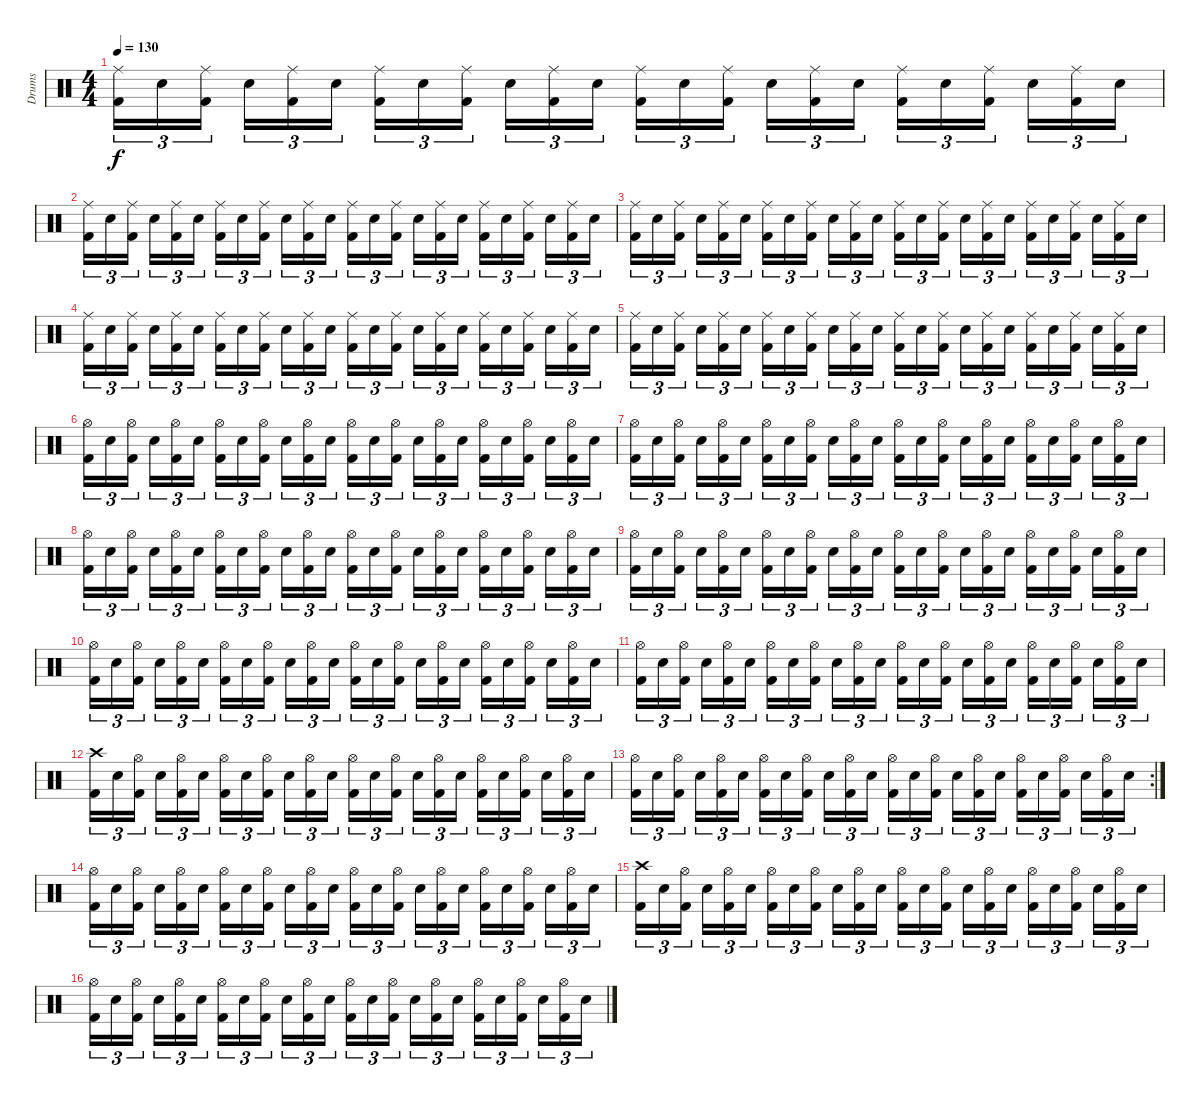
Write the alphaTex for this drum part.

\track ("Drums" "Drums") {instrument percussion}
\staff {score}
\articulation defaults
\ts (4 4)
\tempo 130
\clef neutral
\ks c
("Ride (middle)" "Kick (hit) 2").16{tu (3 2) dy f} "Electric Snare (hit)".16{tu (3 2)} ("Ride (middle)" "Kick (hit) 2").16{tu (3 2)} "Electric Snare (hit)".16{tu (3 2)} ("Ride (middle)" "Kick (hit) 2").16{tu (3 2)} "Electric Snare (hit)".16{tu (3 2)} ("Ride (middle)" "Kick (hit) 2").16{tu (3 2)} "Electric Snare (hit)".16{tu (3 2)} ("Ride (middle)" "Kick (hit) 2").16{tu (3 2)} "Electric Snare (hit)".16{tu (3 2)} ("Ride (middle)" "Kick (hit) 2").16{tu (3 2)} "Electric Snare (hit)".16{tu (3 2)} ("Ride (middle)" "Kick (hit) 2").16{tu (3 2)} "Electric Snare (hit)".16{tu (3 2)} ("Ride (middle)" "Kick (hit) 2").16{tu (3 2)} "Electric Snare (hit)".16{tu (3 2)} ("Ride (middle)" "Kick (hit) 2").16{tu (3 2)} "Electric Snare (hit)".16{tu (3 2)} ("Ride (middle)" "Kick (hit) 2").16{tu (3 2)} "Electric Snare (hit)".16{tu (3 2)} ("Ride (middle)" "Kick (hit) 2").16{tu (3 2)} "Electric Snare (hit)".16{tu (3 2)} ("Ride (middle)" "Kick (hit) 2").16{tu (3 2)} "Electric Snare (hit)".16{tu (3 2)} |
("Ride (middle)" "Kick (hit) 2").16{tu (3 2)} "Electric Snare (hit)".16{tu (3 2)} ("Ride (middle)" "Kick (hit) 2").16{tu (3 2)} "Electric Snare (hit)".16{tu (3 2)} ("Ride (middle)" "Kick (hit) 2").16{tu (3 2)} "Electric Snare (hit)".16{tu (3 2)} ("Ride (middle)" "Kick (hit) 2").16{tu (3 2)} "Electric Snare (hit)".16{tu (3 2)} ("Ride (middle)" "Kick (hit) 2").16{tu (3 2)} "Electric Snare (hit)".16{tu (3 2)} ("Ride (middle)" "Kick (hit) 2").16{tu (3 2)} "Electric Snare (hit)".16{tu (3 2)} ("Ride (middle)" "Kick (hit) 2").16{tu (3 2)} "Electric Snare (hit)".16{tu (3 2)} ("Ride (middle)" "Kick (hit) 2").16{tu (3 2)} "Electric Snare (hit)".16{tu (3 2)} ("Ride (middle)" "Kick (hit) 2").16{tu (3 2)} "Electric Snare (hit)".16{tu (3 2)} ("Ride (middle)" "Kick (hit) 2").16{tu (3 2)} "Electric Snare (hit)".16{tu (3 2)} ("Ride (middle)" "Kick (hit) 2").16{tu (3 2)} "Electric Snare (hit)".16{tu (3 2)} ("Ride (middle)" "Kick (hit) 2").16{tu (3 2)} "Electric Snare (hit)".16{tu (3 2)} |
("Ride (middle)" "Kick (hit) 2").16{tu (3 2)} "Electric Snare (hit)".16{tu (3 2)} ("Ride (middle)" "Kick (hit) 2").16{tu (3 2)} "Electric Snare (hit)".16{tu (3 2)} ("Ride (middle)" "Kick (hit) 2").16{tu (3 2)} "Electric Snare (hit)".16{tu (3 2)} ("Ride (middle)" "Kick (hit) 2").16{tu (3 2)} "Electric Snare (hit)".16{tu (3 2)} ("Ride (middle)" "Kick (hit) 2").16{tu (3 2)} "Electric Snare (hit)".16{tu (3 2)} ("Ride (middle)" "Kick (hit) 2").16{tu (3 2)} "Electric Snare (hit)".16{tu (3 2)} ("Ride (middle)" "Kick (hit) 2").16{tu (3 2)} "Electric Snare (hit)".16{tu (3 2)} ("Ride (middle)" "Kick (hit) 2").16{tu (3 2)} "Electric Snare (hit)".16{tu (3 2)} ("Ride (middle)" "Kick (hit) 2").16{tu (3 2)} "Electric Snare (hit)".16{tu (3 2)} ("Ride (middle)" "Kick (hit) 2").16{tu (3 2)} "Electric Snare (hit)".16{tu (3 2)} ("Ride (middle)" "Kick (hit) 2").16{tu (3 2)} "Electric Snare (hit)".16{tu (3 2)} ("Ride (middle)" "Kick (hit) 2").16{tu (3 2)} "Electric Snare (hit)".16{tu (3 2)} |
("Ride (middle)" "Kick (hit) 2").16{tu (3 2)} "Electric Snare (hit)".16{tu (3 2)} ("Ride (middle)" "Kick (hit) 2").16{tu (3 2)} "Electric Snare (hit)".16{tu (3 2)} ("Ride (middle)" "Kick (hit) 2").16{tu (3 2)} "Electric Snare (hit)".16{tu (3 2)} ("Ride (middle)" "Kick (hit) 2").16{tu (3 2)} "Electric Snare (hit)".16{tu (3 2)} ("Ride (middle)" "Kick (hit) 2").16{tu (3 2)} "Electric Snare (hit)".16{tu (3 2)} ("Ride (middle)" "Kick (hit) 2").16{tu (3 2)} "Electric Snare (hit)".16{tu (3 2)} ("Ride (middle)" "Kick (hit) 2").16{tu (3 2)} "Electric Snare (hit)".16{tu (3 2)} ("Ride (middle)" "Kick (hit) 2").16{tu (3 2)} "Electric Snare (hit)".16{tu (3 2)} ("Ride (middle)" "Kick (hit) 2").16{tu (3 2)} "Electric Snare (hit)".16{tu (3 2)} ("Ride (middle)" "Kick (hit) 2").16{tu (3 2)} "Electric Snare (hit)".16{tu (3 2)} ("Ride (middle)" "Kick (hit) 2").16{tu (3 2)} "Electric Snare (hit)".16{tu (3 2)} ("Ride (middle)" "Kick (hit) 2").16{tu (3 2)} "Electric Snare (hit)".16{tu (3 2)} |
("Ride (middle)" "Kick (hit) 2").16{tu (3 2)} "Electric Snare (hit)".16{tu (3 2)} ("Ride (middle)" "Kick (hit) 2").16{tu (3 2)} "Electric Snare (hit)".16{tu (3 2)} ("Ride (middle)" "Kick (hit) 2").16{tu (3 2)} "Electric Snare (hit)".16{tu (3 2)} ("Ride (middle)" "Kick (hit) 2").16{tu (3 2)} "Electric Snare (hit)".16{tu (3 2)} ("Ride (middle)" "Kick (hit) 2").16{tu (3 2)} "Electric Snare (hit)".16{tu (3 2)} ("Ride (middle)" "Kick (hit) 2").16{tu (3 2)} "Electric Snare (hit)".16{tu (3 2)} ("Ride (middle)" "Kick (hit) 2").16{tu (3 2)} "Electric Snare (hit)".16{tu (3 2)} ("Ride (middle)" "Kick (hit) 2").16{tu (3 2)} "Electric Snare (hit)".16{tu (3 2)} ("Ride (middle)" "Kick (hit) 2").16{tu (3 2)} "Electric Snare (hit)".16{tu (3 2)} ("Ride (middle)" "Kick (hit) 2").16{tu (3 2)} "Electric Snare (hit)".16{tu (3 2)} ("Ride (middle)" "Kick (hit) 2").16{tu (3 2)} "Electric Snare (hit)".16{tu (3 2)} ("Ride (middle)" "Kick (hit) 2").16{tu (3 2)} "Electric Snare (hit)".16{tu (3 2)} |
("Hi-Hat (open)" "Kick (hit) 2").16{tu (3 2)} "Electric Snare (hit)".16{tu (3 2)} ("Hi-Hat (open)" "Kick (hit) 2").16{tu (3 2)} "Electric Snare (hit)".16{tu (3 2)} ("Hi-Hat (open)" "Kick (hit) 2").16{tu (3 2)} "Electric Snare (hit)".16{tu (3 2)} ("Hi-Hat (open)" "Kick (hit) 2").16{tu (3 2)} "Electric Snare (hit)".16{tu (3 2)} ("Hi-Hat (open)" "Kick (hit) 2").16{tu (3 2)} "Electric Snare (hit)".16{tu (3 2)} ("Hi-Hat (open)" "Kick (hit) 2").16{tu (3 2)} "Electric Snare (hit)".16{tu (3 2)} ("Hi-Hat (open)" "Kick (hit) 2").16{tu (3 2)} "Electric Snare (hit)".16{tu (3 2)} ("Hi-Hat (open)" "Kick (hit) 2").16{tu (3 2)} "Electric Snare (hit)".16{tu (3 2)} ("Hi-Hat (open)" "Kick (hit) 2").16{tu (3 2)} "Electric Snare (hit)".16{tu (3 2)} ("Hi-Hat (open)" "Kick (hit) 2").16{tu (3 2)} "Electric Snare (hit)".16{tu (3 2)} ("Hi-Hat (open)" "Kick (hit) 2").16{tu (3 2)} "Electric Snare (hit)".16{tu (3 2)} ("Hi-Hat (open)" "Kick (hit) 2").16{tu (3 2)} "Electric Snare (hit)".16{tu (3 2)} |
("Hi-Hat (open)" "Kick (hit) 2").16{tu (3 2)} "Electric Snare (hit)".16{tu (3 2)} ("Hi-Hat (open)" "Kick (hit) 2").16{tu (3 2)} "Electric Snare (hit)".16{tu (3 2)} ("Hi-Hat (open)" "Kick (hit) 2").16{tu (3 2)} "Electric Snare (hit)".16{tu (3 2)} ("Hi-Hat (open)" "Kick (hit) 2").16{tu (3 2)} "Electric Snare (hit)".16{tu (3 2)} ("Hi-Hat (open)" "Kick (hit) 2").16{tu (3 2)} "Electric Snare (hit)".16{tu (3 2)} ("Hi-Hat (open)" "Kick (hit) 2").16{tu (3 2)} "Electric Snare (hit)".16{tu (3 2)} ("Hi-Hat (open)" "Kick (hit) 2").16{tu (3 2)} "Electric Snare (hit)".16{tu (3 2)} ("Hi-Hat (open)" "Kick (hit) 2").16{tu (3 2)} "Electric Snare (hit)".16{tu (3 2)} ("Hi-Hat (open)" "Kick (hit) 2").16{tu (3 2)} "Electric Snare (hit)".16{tu (3 2)} ("Hi-Hat (open)" "Kick (hit) 2").16{tu (3 2)} "Electric Snare (hit)".16{tu (3 2)} ("Hi-Hat (open)" "Kick (hit) 2").16{tu (3 2)} "Electric Snare (hit)".16{tu (3 2)} ("Hi-Hat (open)" "Kick (hit) 2").16{tu (3 2)} "Electric Snare (hit)".16{tu (3 2)} |
("Hi-Hat (open)" "Kick (hit) 2").16{tu (3 2)} "Electric Snare (hit)".16{tu (3 2)} ("Hi-Hat (open)" "Kick (hit) 2").16{tu (3 2)} "Electric Snare (hit)".16{tu (3 2)} ("Hi-Hat (open)" "Kick (hit) 2").16{tu (3 2)} "Electric Snare (hit)".16{tu (3 2)} ("Hi-Hat (open)" "Kick (hit) 2").16{tu (3 2)} "Electric Snare (hit)".16{tu (3 2)} ("Hi-Hat (open)" "Kick (hit) 2").16{tu (3 2)} "Electric Snare (hit)".16{tu (3 2)} ("Hi-Hat (open)" "Kick (hit) 2").16{tu (3 2)} "Electric Snare (hit)".16{tu (3 2)} ("Hi-Hat (open)" "Kick (hit) 2").16{tu (3 2)} "Electric Snare (hit)".16{tu (3 2)} ("Hi-Hat (open)" "Kick (hit) 2").16{tu (3 2)} "Electric Snare (hit)".16{tu (3 2)} ("Hi-Hat (open)" "Kick (hit) 2").16{tu (3 2)} "Electric Snare (hit)".16{tu (3 2)} ("Hi-Hat (open)" "Kick (hit) 2").16{tu (3 2)} "Electric Snare (hit)".16{tu (3 2)} ("Hi-Hat (open)" "Kick (hit) 2").16{tu (3 2)} "Electric Snare (hit)".16{tu (3 2)} ("Hi-Hat (open)" "Kick (hit) 2").16{tu (3 2)} "Electric Snare (hit)".16{tu (3 2)} |
("Hi-Hat (open)" "Kick (hit) 2").16{tu (3 2)} "Electric Snare (hit)".16{tu (3 2)} ("Hi-Hat (open)" "Kick (hit) 2").16{tu (3 2)} "Electric Snare (hit)".16{tu (3 2)} ("Hi-Hat (open)" "Kick (hit) 2").16{tu (3 2)} "Electric Snare (hit)".16{tu (3 2)} ("Hi-Hat (open)" "Kick (hit) 2").16{tu (3 2)} "Electric Snare (hit)".16{tu (3 2)} ("Hi-Hat (open)" "Kick (hit) 2").16{tu (3 2)} "Electric Snare (hit)".16{tu (3 2)} ("Hi-Hat (open)" "Kick (hit) 2").16{tu (3 2)} "Electric Snare (hit)".16{tu (3 2)} ("Hi-Hat (open)" "Kick (hit) 2").16{tu (3 2)} "Electric Snare (hit)".16{tu (3 2)} ("Hi-Hat (open)" "Kick (hit) 2").16{tu (3 2)} "Electric Snare (hit)".16{tu (3 2)} ("Hi-Hat (open)" "Kick (hit) 2").16{tu (3 2)} "Electric Snare (hit)".16{tu (3 2)} ("Hi-Hat (open)" "Kick (hit) 2").16{tu (3 2)} "Electric Snare (hit)".16{tu (3 2)} ("Hi-Hat (open)" "Kick (hit) 2").16{tu (3 2)} "Electric Snare (hit)".16{tu (3 2)} ("Hi-Hat (open)" "Kick (hit) 2").16{tu (3 2)} "Electric Snare (hit)".16{tu (3 2)} |
("Hi-Hat (open)" "Kick (hit) 2").16{tu (3 2)} "Electric Snare (hit)".16{tu (3 2)} ("Hi-Hat (open)" "Kick (hit) 2").16{tu (3 2)} "Electric Snare (hit)".16{tu (3 2)} ("Hi-Hat (open)" "Kick (hit) 2").16{tu (3 2)} "Electric Snare (hit)".16{tu (3 2)} ("Hi-Hat (open)" "Kick (hit) 2").16{tu (3 2)} "Electric Snare (hit)".16{tu (3 2)} ("Hi-Hat (open)" "Kick (hit) 2").16{tu (3 2)} "Electric Snare (hit)".16{tu (3 2)} ("Hi-Hat (open)" "Kick (hit) 2").16{tu (3 2)} "Electric Snare (hit)".16{tu (3 2)} ("Hi-Hat (open)" "Kick (hit) 2").16{tu (3 2)} "Electric Snare (hit)".16{tu (3 2)} ("Hi-Hat (open)" "Kick (hit) 2").16{tu (3 2)} "Electric Snare (hit)".16{tu (3 2)} ("Hi-Hat (open)" "Kick (hit) 2").16{tu (3 2)} "Electric Snare (hit)".16{tu (3 2)} ("Hi-Hat (open)" "Kick (hit) 2").16{tu (3 2)} "Electric Snare (hit)".16{tu (3 2)} ("Hi-Hat (open)" "Kick (hit) 2").16{tu (3 2)} "Electric Snare (hit)".16{tu (3 2)} ("Hi-Hat (open)" "Kick (hit) 2").16{tu (3 2)} "Electric Snare (hit)".16{tu (3 2)} |
("Hi-Hat (open)" "Kick (hit) 2").16{tu (3 2)} "Electric Snare (hit)".16{tu (3 2)} ("Hi-Hat (open)" "Kick (hit) 2").16{tu (3 2)} "Electric Snare (hit)".16{tu (3 2)} ("Hi-Hat (open)" "Kick (hit) 2").16{tu (3 2)} "Electric Snare (hit)".16{tu (3 2)} ("Hi-Hat (open)" "Kick (hit) 2").16{tu (3 2)} "Electric Snare (hit)".16{tu (3 2)} ("Hi-Hat (open)" "Kick (hit) 2").16{tu (3 2)} "Electric Snare (hit)".16{tu (3 2)} ("Hi-Hat (open)" "Kick (hit) 2").16{tu (3 2)} "Electric Snare (hit)".16{tu (3 2)} ("Hi-Hat (open)" "Kick (hit) 2").16{tu (3 2)} "Electric Snare (hit)".16{tu (3 2)} ("Hi-Hat (open)" "Kick (hit) 2").16{tu (3 2)} "Electric Snare (hit)".16{tu (3 2)} ("Hi-Hat (open)" "Kick (hit) 2").16{tu (3 2)} "Electric Snare (hit)".16{tu (3 2)} ("Hi-Hat (open)" "Kick (hit) 2").16{tu (3 2)} "Electric Snare (hit)".16{tu (3 2)} ("Hi-Hat (open)" "Kick (hit) 2").16{tu (3 2)} "Electric Snare (hit)".16{tu (3 2)} ("Hi-Hat (open)" "Kick (hit) 2").16{tu (3 2)} "Electric Snare (hit)".16{tu (3 2)} |
("Crash high (hit)" "Kick (hit) 2").16{tu (3 2)} "Electric Snare (hit)".16{tu (3 2)} ("Hi-Hat (open)" "Kick (hit) 2").16{tu (3 2)} "Electric Snare (hit)".16{tu (3 2)} ("Hi-Hat (open)" "Kick (hit) 2").16{tu (3 2)} "Electric Snare (hit)".16{tu (3 2)} ("Hi-Hat (open)" "Kick (hit) 2").16{tu (3 2)} "Electric Snare (hit)".16{tu (3 2)} ("Hi-Hat (open)" "Kick (hit) 2").16{tu (3 2)} "Electric Snare (hit)".16{tu (3 2)} ("Hi-Hat (open)" "Kick (hit) 2").16{tu (3 2)} "Electric Snare (hit)".16{tu (3 2)} ("Hi-Hat (open)" "Kick (hit) 2").16{tu (3 2)} "Electric Snare (hit)".16{tu (3 2)} ("Hi-Hat (open)" "Kick (hit) 2").16{tu (3 2)} "Electric Snare (hit)".16{tu (3 2)} ("Hi-Hat (open)" "Kick (hit) 2").16{tu (3 2)} "Electric Snare (hit)".16{tu (3 2)} ("Hi-Hat (open)" "Kick (hit) 2").16{tu (3 2)} "Electric Snare (hit)".16{tu (3 2)} ("Hi-Hat (open)" "Kick (hit) 2").16{tu (3 2)} "Electric Snare (hit)".16{tu (3 2)} ("Hi-Hat (open)" "Kick (hit) 2").16{tu (3 2)} "Electric Snare (hit)".16{tu (3 2)} |
\rc 2
("Hi-Hat (open)" "Kick (hit) 2").16{tu (3 2)} "Electric Snare (hit)".16{tu (3 2)} ("Hi-Hat (open)" "Kick (hit) 2").16{tu (3 2)} "Electric Snare (hit)".16{tu (3 2)} ("Hi-Hat (open)" "Kick (hit) 2").16{tu (3 2)} "Electric Snare (hit)".16{tu (3 2)} ("Hi-Hat (open)" "Kick (hit) 2").16{tu (3 2)} "Electric Snare (hit)".16{tu (3 2)} ("Hi-Hat (open)" "Kick (hit) 2").16{tu (3 2)} "Electric Snare (hit)".16{tu (3 2)} ("Hi-Hat (open)" "Kick (hit) 2").16{tu (3 2)} "Electric Snare (hit)".16{tu (3 2)} ("Hi-Hat (open)" "Kick (hit) 2").16{tu (3 2)} "Electric Snare (hit)".16{tu (3 2)} ("Hi-Hat (open)" "Kick (hit) 2").16{tu (3 2)} "Electric Snare (hit)".16{tu (3 2)} ("Hi-Hat (open)" "Kick (hit) 2").16{tu (3 2)} "Electric Snare (hit)".16{tu (3 2)} ("Hi-Hat (open)" "Kick (hit) 2").16{tu (3 2)} "Electric Snare (hit)".16{tu (3 2)} ("Hi-Hat (open)" "Kick (hit) 2").16{tu (3 2)} "Electric Snare (hit)".16{tu (3 2)} ("Hi-Hat (open)" "Kick (hit) 2").16{tu (3 2)} "Electric Snare (hit)".16{tu (3 2)} |
("Hi-Hat (open)" "Kick (hit) 2").16{tu (3 2)} "Electric Snare (hit)".16{tu (3 2)} ("Hi-Hat (open)" "Kick (hit) 2").16{tu (3 2)} "Electric Snare (hit)".16{tu (3 2)} ("Hi-Hat (open)" "Kick (hit) 2").16{tu (3 2)} "Electric Snare (hit)".16{tu (3 2)} ("Hi-Hat (open)" "Kick (hit) 2").16{tu (3 2)} "Electric Snare (hit)".16{tu (3 2)} ("Hi-Hat (open)" "Kick (hit) 2").16{tu (3 2)} "Electric Snare (hit)".16{tu (3 2)} ("Hi-Hat (open)" "Kick (hit) 2").16{tu (3 2)} "Electric Snare (hit)".16{tu (3 2)} ("Hi-Hat (open)" "Kick (hit) 2").16{tu (3 2)} "Electric Snare (hit)".16{tu (3 2)} ("Hi-Hat (open)" "Kick (hit) 2").16{tu (3 2)} "Electric Snare (hit)".16{tu (3 2)} ("Hi-Hat (open)" "Kick (hit) 2").16{tu (3 2)} "Electric Snare (hit)".16{tu (3 2)} ("Hi-Hat (open)" "Kick (hit) 2").16{tu (3 2)} "Electric Snare (hit)".16{tu (3 2)} ("Hi-Hat (open)" "Kick (hit) 2").16{tu (3 2)} "Electric Snare (hit)".16{tu (3 2)} ("Hi-Hat (open)" "Kick (hit) 2").16{tu (3 2)} "Electric Snare (hit)".16{tu (3 2)} |
("Crash high (hit)" "Kick (hit) 2").16{tu (3 2)} "Electric Snare (hit)".16{tu (3 2)} ("Hi-Hat (open)" "Kick (hit) 2").16{tu (3 2)} "Electric Snare (hit)".16{tu (3 2)} ("Hi-Hat (open)" "Kick (hit) 2").16{tu (3 2)} "Electric Snare (hit)".16{tu (3 2)} ("Hi-Hat (open)" "Kick (hit) 2").16{tu (3 2)} "Electric Snare (hit)".16{tu (3 2)} ("Hi-Hat (open)" "Kick (hit) 2").16{tu (3 2)} "Electric Snare (hit)".16{tu (3 2)} ("Hi-Hat (open)" "Kick (hit) 2").16{tu (3 2)} "Electric Snare (hit)".16{tu (3 2)} ("Hi-Hat (open)" "Kick (hit) 2").16{tu (3 2)} "Electric Snare (hit)".16{tu (3 2)} ("Hi-Hat (open)" "Kick (hit) 2").16{tu (3 2)} "Electric Snare (hit)".16{tu (3 2)} ("Hi-Hat (open)" "Kick (hit) 2").16{tu (3 2)} "Electric Snare (hit)".16{tu (3 2)} ("Hi-Hat (open)" "Kick (hit) 2").16{tu (3 2)} "Electric Snare (hit)".16{tu (3 2)} ("Hi-Hat (open)" "Kick (hit) 2").16{tu (3 2)} "Electric Snare (hit)".16{tu (3 2)} ("Hi-Hat (open)" "Kick (hit) 2").16{tu (3 2)} "Electric Snare (hit)".16{tu (3 2)} |
("Hi-Hat (open)" "Kick (hit) 2").16{tu (3 2)} "Electric Snare (hit)".16{tu (3 2)} ("Hi-Hat (open)" "Kick (hit) 2").16{tu (3 2)} "Electric Snare (hit)".16{tu (3 2)} ("Hi-Hat (open)" "Kick (hit) 2").16{tu (3 2)} "Electric Snare (hit)".16{tu (3 2)} ("Hi-Hat (open)" "Kick (hit) 2").16{tu (3 2)} "Electric Snare (hit)".16{tu (3 2)} ("Hi-Hat (open)" "Kick (hit) 2").16{tu (3 2)} "Electric Snare (hit)".16{tu (3 2)} ("Hi-Hat (open)" "Kick (hit) 2").16{tu (3 2)} "Electric Snare (hit)".16{tu (3 2)} ("Hi-Hat (open)" "Kick (hit) 2").16{tu (3 2)} "Electric Snare (hit)".16{tu (3 2)} ("Hi-Hat (open)" "Kick (hit) 2").16{tu (3 2)} "Electric Snare (hit)".16{tu (3 2)} ("Hi-Hat (open)" "Kick (hit) 2").16{tu (3 2)} "Electric Snare (hit)".16{tu (3 2)} ("Hi-Hat (open)" "Kick (hit) 2").16{tu (3 2)} "Electric Snare (hit)".16{tu (3 2)} ("Hi-Hat (open)" "Kick (hit) 2").16{tu (3 2)} "Electric Snare (hit)".16{tu (3 2)} ("Hi-Hat (open)" "Kick (hit) 2").16{tu (3 2)} "Electric Snare (hit)".16{tu (3 2)}
